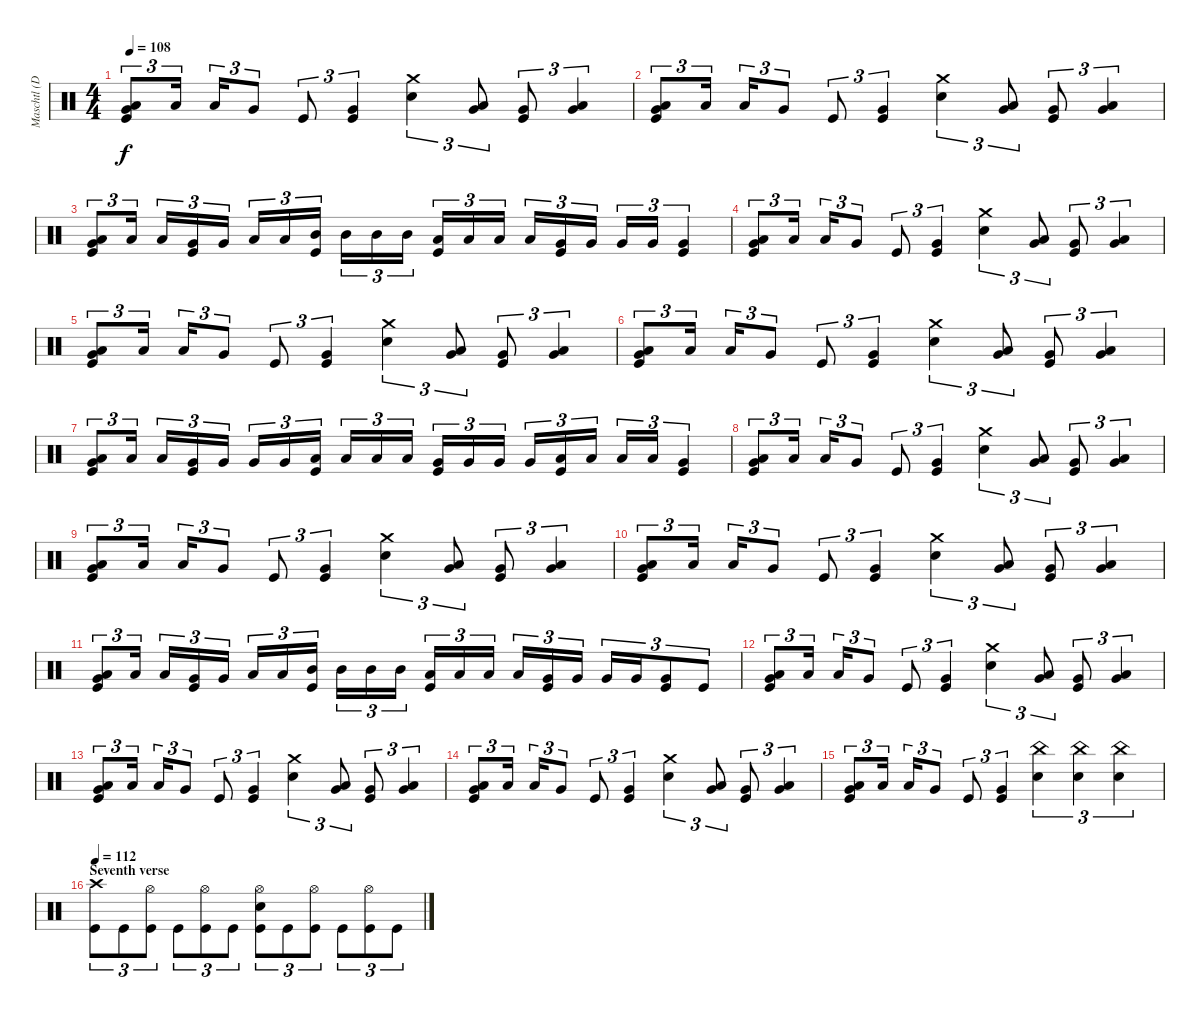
\track ("Maschtl (Drums)" "Maschtl (D") {instrument percussion}
\staff {score}
\articulation defaults
\ts (4 4)
\tempo 108
\clef neutral
\ks c
("Very Low Tom (hit)" "Low Tom (hit)" "Kick (hit)").8{tu (3 2) bd 60 dy f} "Low Tom (hit)".16{tu (3 2)} "Low Tom (hit)".16{tu (3 2)} "Very Low Tom (hit)".8{tu (3 2)} "Kick (hit)".8{tu (3 2)} ("Very Low Tom (hit)" "Kick (hit)").4{tu (3 2)} ("Crash medium (hit)" "Electric Snare (hit)").4{tu (3 2)} ("Low Tom (hit)" "Very Low Tom (hit)").8{tu (3 2) bd 60} ("Very Low Tom (hit)" "Kick (hit)").8{tu (3 2)} ("Low Tom (hit)" "Very Low Tom (hit)").4{tu (3 2) bd 60} |
("Very Low Tom (hit)" "Low Tom (hit)" "Kick (hit)").8{tu (3 2) bd 60} "Low Tom (hit)".16{tu (3 2)} "Low Tom (hit)".16{tu (3 2)} "Very Low Tom (hit)".8{tu (3 2)} "Kick (hit)".8{tu (3 2)} ("Very Low Tom (hit)" "Kick (hit)").4{tu (3 2)} ("Crash medium (hit)" "Electric Snare (hit)").4{tu (3 2)} ("Low Tom (hit)" "Very Low Tom (hit)").8{tu (3 2) bd 60} ("Very Low Tom (hit)" "Kick (hit)").8{tu (3 2)} ("Low Tom (hit)" "Very Low Tom (hit)").4{tu (3 2) bd 60} |
("Very Low Tom (hit)" "Low Tom (hit)" "Kick (hit)").8{tu (3 2) bd 60} "Low Tom (hit)".16{tu (3 2)} "Low Tom (hit)".16{tu (3 2)} ("Very Low Tom (hit)" "Kick (hit)").16{tu (3 2)} "Very Low Tom (hit)".16{tu (3 2)} "Low Floor Tom (hit)".16{tu (3 2)} "Low Floor Tom (hit)".16{tu (3 2)} ("Mid Tom (hit)" "Kick (hit)").16{tu (3 2)} "Mid Tom (hit)".16{tu (3 2)} "Mid Tom (hit)".16{tu (3 2)} "Mid Tom (hit)".16{tu (3 2)} ("Low Tom (hit)" "Kick (hit)").16{tu (3 2)} "Low Tom (hit)".16{tu (3 2)} "Low Tom (hit)".16{tu (3 2)} "Low Tom (hit)".16{tu (3 2)} ("Very Low Tom (hit)" "Kick (hit)").16{tu (3 2)} "Very Low Tom (hit)".16{tu (3 2)} "Very Low Tom (hit)".16{tu (3 2)} "Very Low Tom (hit)".16{tu (3 2)} ("Very Low Tom (hit)" "Kick (hit)").4{tu (3 2)} |
("Very Low Tom (hit)" "Low Tom (hit)" "Kick (hit)").8{tu (3 2) bd 60} "Low Tom (hit)".16{tu (3 2)} "Low Tom (hit)".16{tu (3 2)} "Very Low Tom (hit)".8{tu (3 2)} "Kick (hit)".8{tu (3 2)} ("Very Low Tom (hit)" "Kick (hit)").4{tu (3 2)} ("Crash medium (hit)" "Electric Snare (hit)").4{tu (3 2)} ("Low Tom (hit)" "Very Low Tom (hit)").8{tu (3 2) bd 60} ("Very Low Tom (hit)" "Kick (hit)").8{tu (3 2)} ("Low Tom (hit)" "Very Low Tom (hit)").4{tu (3 2) bd 60} |
("Very Low Tom (hit)" "Low Tom (hit)" "Kick (hit)").8{tu (3 2) bd 60} "Low Tom (hit)".16{tu (3 2)} "Low Tom (hit)".16{tu (3 2)} "Very Low Tom (hit)".8{tu (3 2)} "Kick (hit)".8{tu (3 2)} ("Very Low Tom (hit)" "Kick (hit)").4{tu (3 2)} ("Crash medium (hit)" "Electric Snare (hit)").4{tu (3 2)} ("Low Tom (hit)" "Very Low Tom (hit)").8{tu (3 2) bd 60} ("Very Low Tom (hit)" "Kick (hit)").8{tu (3 2)} ("Low Tom (hit)" "Very Low Tom (hit)").4{tu (3 2) bd 60} |
("Very Low Tom (hit)" "Low Tom (hit)" "Kick (hit)").8{tu (3 2) bd 60} "Low Tom (hit)".16{tu (3 2)} "Low Tom (hit)".16{tu (3 2)} "Very Low Tom (hit)".8{tu (3 2)} "Kick (hit)".8{tu (3 2)} ("Very Low Tom (hit)" "Kick (hit)").4{tu (3 2)} ("Crash medium (hit)" "Electric Snare (hit)").4{tu (3 2)} ("Low Tom (hit)" "Very Low Tom (hit)").8{tu (3 2) bd 60} ("Very Low Tom (hit)" "Kick (hit)").8{tu (3 2)} ("Low Tom (hit)" "Very Low Tom (hit)").4{tu (3 2) bd 60} |
("Very Low Tom (hit)" "Low Tom (hit)" "Kick (hit)").8{tu (3 2) bd 60} "Low Floor Tom (hit)".16{tu (3 2)} "Low Floor Tom (hit)".16{tu (3 2)} ("Very Low Tom (hit)" "Kick (hit)").16{tu (3 2)} "Very Low Tom (hit)".16{tu (3 2)} "Very Low Tom (hit)".16{tu (3 2)} "Very Low Tom (hit)".16{tu (3 2)} ("Low Tom (hit)" "Kick (hit)").16{tu (3 2)} "Low Tom (hit)".16{tu (3 2)} "Low Tom (hit)".16{tu (3 2)} "Low Tom (hit)".16{tu (3 2)} ("Very Low Tom (hit)" "Kick (hit)").16{tu (3 2)} "Very Low Tom (hit)".16{tu (3 2)} "Very Low Tom (hit)".16{tu (3 2)} "Very Low Tom (hit)".16{tu (3 2)} ("Low Floor Tom (hit)" "Kick (hit)").16{tu (3 2)} "Low Floor Tom (hit)".16{tu (3 2)} "Low Floor Tom (hit)".16{tu (3 2)} "Low Floor Tom (hit)".16{tu (3 2)} ("Very Low Tom (hit)" "Kick (hit)").4{tu (3 2)} |
("Very Low Tom (hit)" "Low Tom (hit)" "Kick (hit)").8{tu (3 2) bd 60} "Low Tom (hit)".16{tu (3 2)} "Low Tom (hit)".16{tu (3 2)} "Very Low Tom (hit)".8{tu (3 2)} "Kick (hit)".8{tu (3 2)} ("Very Low Tom (hit)" "Kick (hit)").4{tu (3 2)} ("Crash medium (hit)" "Electric Snare (hit)").4{tu (3 2)} ("Low Tom (hit)" "Very Low Tom (hit)").8{tu (3 2) bd 60} ("Very Low Tom (hit)" "Kick (hit)").8{tu (3 2)} ("Low Tom (hit)" "Very Low Tom (hit)").4{tu (3 2) bd 60} |
("Very Low Tom (hit)" "Low Tom (hit)" "Kick (hit)").8{tu (3 2) bd 60} "Low Tom (hit)".16{tu (3 2)} "Low Tom (hit)".16{tu (3 2)} "Very Low Tom (hit)".8{tu (3 2)} "Kick (hit)".8{tu (3 2)} ("Very Low Tom (hit)" "Kick (hit)").4{tu (3 2)} ("Crash medium (hit)" "Electric Snare (hit)").4{tu (3 2)} ("Low Tom (hit)" "Very Low Tom (hit)").8{tu (3 2) bd 60} ("Very Low Tom (hit)" "Kick (hit)").8{tu (3 2)} ("Low Tom (hit)" "Very Low Tom (hit)").4{tu (3 2) bd 60} |
("Very Low Tom (hit)" "Low Tom (hit)" "Kick (hit)").8{tu (3 2) bd 60} "Low Tom (hit)".16{tu (3 2)} "Low Tom (hit)".16{tu (3 2)} "Very Low Tom (hit)".8{tu (3 2)} "Kick (hit)".8{tu (3 2)} ("Very Low Tom (hit)" "Kick (hit)").4{tu (3 2)} ("Crash medium (hit)" "Electric Snare (hit)").4{tu (3 2)} ("Low Tom (hit)" "Very Low Tom (hit)").8{tu (3 2) bd 60} ("Very Low Tom (hit)" "Kick (hit)").8{tu (3 2)} ("Low Tom (hit)" "Very Low Tom (hit)").4{tu (3 2) bd 60} |
("Very Low Tom (hit)" "Low Tom (hit)" "Kick (hit)").8{tu (3 2) bd 60} "Low Tom (hit)".16{tu (3 2)} "Low Tom (hit)".16{tu (3 2)} ("Very Low Tom (hit)" "Kick (hit)").16{tu (3 2)} "Very Low Tom (hit)".16{tu (3 2)} "Low Floor Tom (hit)".16{tu (3 2)} "Low Floor Tom (hit)".16{tu (3 2)} ("Mid Tom (hit)" "Kick (hit)").16{tu (3 2)} "Mid Tom (hit)".16{tu (3 2)} "Mid Tom (hit)".16{tu (3 2)} "Mid Tom (hit)".16{tu (3 2)} ("Low Tom (hit)" "Kick (hit)").16{tu (3 2)} "Low Tom (hit)".16{tu (3 2)} "Low Tom (hit)".16{tu (3 2)} "Low Tom (hit)".16{tu (3 2)} ("Very Low Tom (hit)" "Kick (hit)").16{tu (3 2)} "Very Low Tom (hit)".16{tu (3 2)} "Very Low Tom (hit)".16{tu (3 2)} "Very Low Tom (hit)".16{tu (3 2)} ("Very Low Tom (hit)" "Kick (hit)").8{tu (3 2)} "Kick (hit)".8{tu (3 2)} |
("Very Low Tom (hit)" "Low Tom (hit)" "Kick (hit)").8{tu (3 2) bd 60} "Low Tom (hit)".16{tu (3 2)} "Low Tom (hit)".16{tu (3 2)} "Very Low Tom (hit)".8{tu (3 2)} "Kick (hit)".8{tu (3 2)} ("Very Low Tom (hit)" "Kick (hit)").4{tu (3 2)} ("Crash medium (hit)" "Electric Snare (hit)").4{tu (3 2)} ("Low Tom (hit)" "Very Low Tom (hit)").8{tu (3 2) bd 60} ("Very Low Tom (hit)" "Kick (hit)").8{tu (3 2)} ("Low Tom (hit)" "Very Low Tom (hit)").4{tu (3 2) bd 60} |
("Very Low Tom (hit)" "Low Tom (hit)" "Kick (hit)").8{tu (3 2) bd 60} "Low Tom (hit)".16{tu (3 2)} "Low Tom (hit)".16{tu (3 2)} "Very Low Tom (hit)".8{tu (3 2)} "Kick (hit)".8{tu (3 2)} ("Very Low Tom (hit)" "Kick (hit)").4{tu (3 2)} ("Crash medium (hit)" "Electric Snare (hit)").4{tu (3 2)} ("Low Tom (hit)" "Very Low Tom (hit)").8{tu (3 2) bd 60} ("Very Low Tom (hit)" "Kick (hit)").8{tu (3 2)} ("Low Tom (hit)" "Very Low Tom (hit)").4{tu (3 2) bd 60} |
("Very Low Tom (hit)" "Low Tom (hit)" "Kick (hit)").8{tu (3 2) bd 60} "Low Tom (hit)".16{tu (3 2)} "Low Tom (hit)".16{tu (3 2)} "Very Low Tom (hit)".8{tu (3 2)} "Kick (hit)".8{tu (3 2)} ("Very Low Tom (hit)" "Kick (hit)").4{tu (3 2)} ("Crash medium (hit)" "Electric Snare (hit)").4{tu (3 2)} ("Low Tom (hit)" "Very Low Tom (hit)").8{tu (3 2) bd 60} ("Very Low Tom (hit)" "Kick (hit)").8{tu (3 2)} ("Low Tom (hit)" "Very Low Tom (hit)").4{tu (3 2) bd 60} |
("Very Low Tom (hit)" "Low Tom (hit)" "Kick (hit)").8{tu (3 2) bd 60} "Low Tom (hit)".16{tu (3 2)} "Low Tom (hit)".16{tu (3 2)} "Very Low Tom (hit)".8{tu (3 2)} "Kick (hit)".8{tu (3 2)} ("Very Low Tom (hit)" "Kick (hit)").4{tu (3 2)} ("China (hit)" "Electric Snare (hit)").4{tu (3 2)} ("China (hit)" "Electric Snare (hit)").4{tu (3 2)} ("China (hit)" "Electric Snare (hit)").4{tu (3 2)} |
\section ("" "Seventh verse")
\tempo 112
("Crash high (hit)" "Kick (hit)").8{tu (3 2)} "Kick (hit)".8{tu (3 2)} ("Hi-Hat (open)" "Kick (hit)").8{tu (3 2)} "Kick (hit)".8{tu (3 2)} ("Hi-Hat (open)" "Kick (hit)").8{tu (3 2)} "Kick (hit)".8{tu (3 2)} ("Hi-Hat (open)" "Electric Snare (hit)" "Kick (hit)").8{tu (3 2)} "Kick (hit)".8{tu (3 2)} ("Hi-Hat (open)" "Kick (hit)").8{tu (3 2)} "Kick (hit)".8{tu (3 2)} ("Hi-Hat (open)" "Kick (hit)").8{tu (3 2)} "Kick (hit)".8{tu (3 2)}
